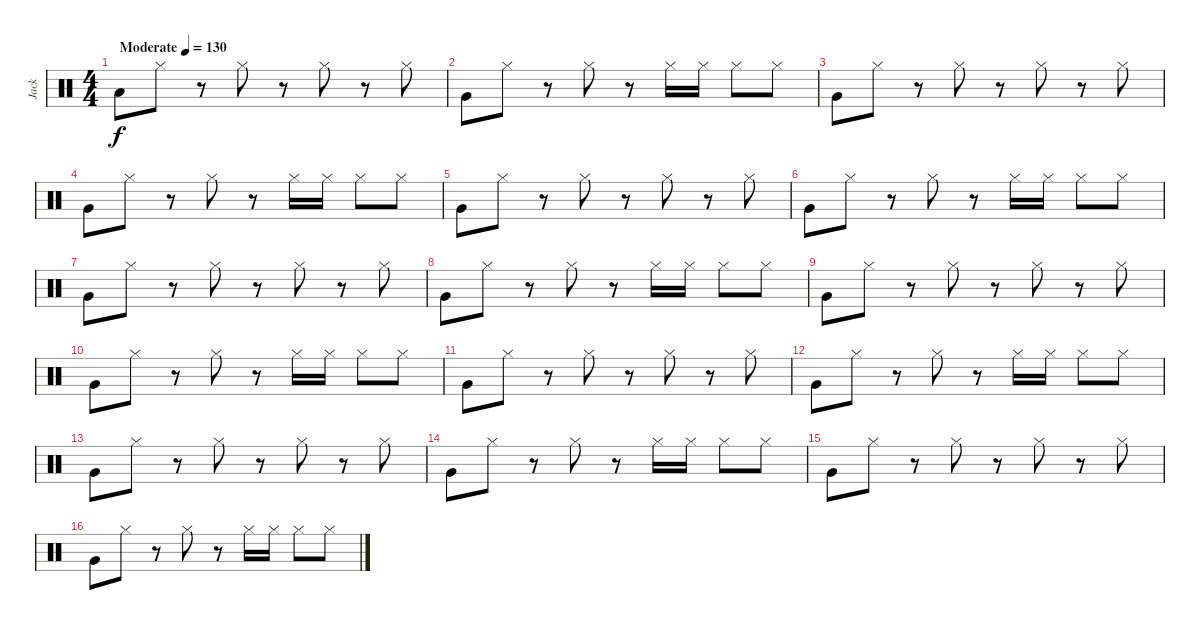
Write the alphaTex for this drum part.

\track ("Jack" "Jack") {instrument percussion}
\staff {score}
\articulation defaults
\ts (4 4)
\tempo (130 "Moderate")
\clef neutral
\ks c "Low Floor Tom (hit)".8{dy f} "Hi-Hat (closed)".8
r.8 "Hi-Hat (closed)".8 r.8 "Hi-Hat (closed)".8 r.8 "Hi-Hat (closed)".8 |
"Very Low Tom (hit)".8 "Hi-Hat (closed)".8 r.8 "Hi-Hat (closed)".8 r.8 "Hi-Hat (closed)".16 "Hi-Hat (closed)".16 "Hi-Hat (closed)".8 "Hi-Hat (closed)".8 |
"Very Low Tom (hit)".8 "Hi-Hat (closed)".8 r.8 "Hi-Hat (closed)".8 r.8 "Hi-Hat (closed)".8 r.8 "Hi-Hat (closed)".8 |
"Very Low Tom (hit)".8 "Hi-Hat (closed)".8 r.8 "Hi-Hat (closed)".8 r.8 "Hi-Hat (closed)".16 "Hi-Hat (closed)".16 "Hi-Hat (closed)".8 "Hi-Hat (closed)".8 |
"Very Low Tom (hit)".8 "Hi-Hat (closed)".8 r.8 "Hi-Hat (closed)".8 r.8 "Hi-Hat (closed)".8 r.8 "Hi-Hat (closed)".8 |
"Very Low Tom (hit)".8 "Hi-Hat (closed)".8 r.8 "Hi-Hat (closed)".8 r.8 "Hi-Hat (closed)".16 "Hi-Hat (closed)".16 "Hi-Hat (closed)".8 "Hi-Hat (closed)".8 |
"Very Low Tom (hit)".8 "Hi-Hat (closed)".8 r.8 "Hi-Hat (closed)".8 r.8 "Hi-Hat (closed)".8 r.8 "Hi-Hat (closed)".8 |
"Very Low Tom (hit)".8 "Hi-Hat (closed)".8 r.8 "Hi-Hat (closed)".8 r.8 "Hi-Hat (closed)".16 "Hi-Hat (closed)".16 "Hi-Hat (closed)".8 "Hi-Hat (closed)".8 |
"Very Low Tom (hit)".8 "Hi-Hat (closed)".8 r.8 "Hi-Hat (closed)".8 r.8 "Hi-Hat (closed)".8 r.8 "Hi-Hat (closed)".8 |
"Very Low Tom (hit)".8 "Hi-Hat (closed)".8 r.8 "Hi-Hat (closed)".8 r.8 "Hi-Hat (closed)".16 "Hi-Hat (closed)".16 "Hi-Hat (closed)".8 "Hi-Hat (closed)".8 |
"Very Low Tom (hit)".8 "Hi-Hat (closed)".8 r.8 "Hi-Hat (closed)".8 r.8 "Hi-Hat (closed)".8 r.8 "Hi-Hat (closed)".8 |
"Very Low Tom (hit)".8 "Hi-Hat (closed)".8 r.8 "Hi-Hat (closed)".8 r.8 "Hi-Hat (closed)".16 "Hi-Hat (closed)".16 "Hi-Hat (closed)".8 "Hi-Hat (closed)".8 |
"Very Low Tom (hit)".8 "Hi-Hat (closed)".8 r.8 "Hi-Hat (closed)".8 r.8 "Hi-Hat (closed)".8 r.8 "Hi-Hat (closed)".8 |
"Very Low Tom (hit)".8 "Hi-Hat (closed)".8 r.8 "Hi-Hat (closed)".8 r.8 "Hi-Hat (closed)".16 "Hi-Hat (closed)".16 "Hi-Hat (closed)".8 "Hi-Hat (closed)".8 |
"Very Low Tom (hit)".8 "Hi-Hat (closed)".8 r.8 "Hi-Hat (closed)".8 r.8 "Hi-Hat (closed)".8 r.8 "Hi-Hat (closed)".8 |
"Very Low Tom (hit)".8 "Hi-Hat (closed)".8 r.8 "Hi-Hat (closed)".8 r.8 "Hi-Hat (closed)".16 "Hi-Hat (closed)".16 "Hi-Hat (closed)".8 "Hi-Hat (closed)".8
